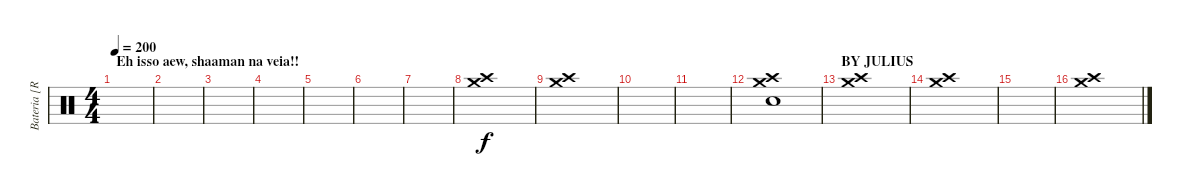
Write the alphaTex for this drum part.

\track ("Bateria [Ricardo Confessori]" "Bateria [R") {instrument percussion}
\staff {score}
\articulation defaults
\ts (4 4)
\section ("" "Eh isso aew, shaaman na veia!!")
\tempo 200
\clef neutral
\ks c
|
|
|
|
|
|
|
("Crash medium (hit)" "Crash high (hit)").1 |
("Crash medium (hit)" "Crash high (hit)").1 |
|
|
("Crash medium (hit)" "Crash high (hit)" "Snare (hit)").1 |
\section ("" "BY JULIUS")
("Crash medium (hit)" "Crash high (hit)").1 |
("Crash medium (hit)" "Crash high (hit)").1 |
|
("Crash medium (hit)" "Crash high (hit)").1
